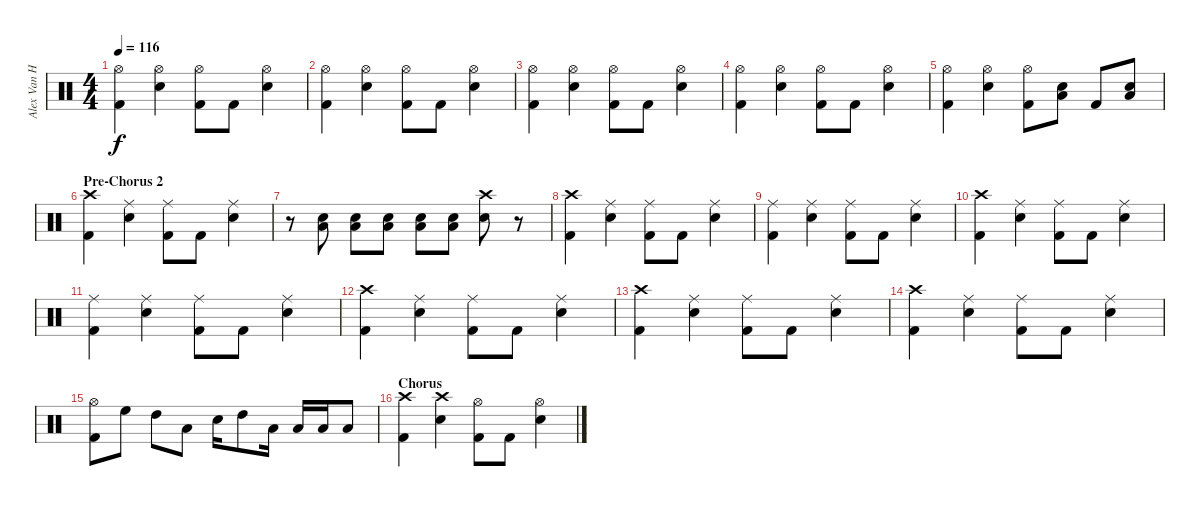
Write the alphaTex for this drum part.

\track ("Alex Van Halen" "Alex Van H") {instrument percussion}
\staff {score}
\articulation defaults
\ts (4 4)
\tempo 116
\clef neutral
\ks c
("Hi-Hat (open)" "Kick (hit) 2").4{dy f} ("Hi-Hat (open)" "Electric Snare (hit)").4 ("Hi-Hat (open)" "Kick (hit) 2").8 "Kick (hit) 2".8 ("Hi-Hat (open)" "Electric Snare (hit)").4 |
("Hi-Hat (open)" "Kick (hit) 2").4 ("Hi-Hat (open)" "Electric Snare (hit)").4 ("Hi-Hat (open)" "Kick (hit) 2").8 "Kick (hit) 2".8 ("Hi-Hat (open)" "Electric Snare (hit)").4 |
("Hi-Hat (open)" "Kick (hit) 2").4 ("Hi-Hat (open)" "Electric Snare (hit)").4 ("Hi-Hat (open)" "Kick (hit) 2").8 "Kick (hit) 2".8 ("Hi-Hat (open)" "Electric Snare (hit)").4 |
("Hi-Hat (open)" "Kick (hit) 2").4 ("Hi-Hat (open)" "Electric Snare (hit)").4 ("Hi-Hat (open)" "Kick (hit) 2").8 "Kick (hit) 2".8 ("Hi-Hat (open)" "Electric Snare (hit)").4 |
("Hi-Hat (open)" "Kick (hit) 2").4 ("Hi-Hat (open)" "Electric Snare (hit)").4 ("Hi-Hat (open)" "Kick (hit) 2").8 ("Electric Snare (hit)" "Low Floor Tom (hit)").8 "Kick (hit) 2".8 ("Electric Snare (hit)" "Low Floor Tom (hit)").8 |
\section ("" "Pre-Chorus 2")
("Crash high (hit)" "Kick (hit) 2").4 ("Ride (middle)" "Electric Snare (hit)").4 ("Ride (middle)" "Kick (hit) 2").8 "Kick (hit) 2".8 ("Ride (middle)" "Electric Snare (hit)").4 |
r.8 ("Electric Snare (hit)" "Low Floor Tom (hit)").8 ("Electric Snare (hit)" "Low Floor Tom (hit)").8 ("Electric Snare (hit)" "Low Floor Tom (hit)").8 ("Electric Snare (hit)" "Low Floor Tom (hit)").8 ("Electric Snare (hit)" "Low Floor Tom (hit)").8 ("Crash high (hit)" "Electric Snare (hit)").8 r.8 |
("Crash high (hit)" "Kick (hit) 2").4 ("Ride (middle)" "Electric Snare (hit)").4 ("Ride (middle)" "Kick (hit) 2").8 "Kick (hit) 2".8 ("Ride (middle)" "Electric Snare (hit)").4 |
("Ride (middle)" "Kick (hit) 2").4 ("Ride (middle)" "Electric Snare (hit)").4 ("Ride (middle)" "Kick (hit) 2").8 "Kick (hit) 2".8 ("Ride (middle)" "Electric Snare (hit)").4 |
("Crash high (hit)" "Kick (hit) 2").4 ("Ride (middle)" "Electric Snare (hit)").4 ("Ride (middle)" "Kick (hit) 2").8 "Kick (hit) 2".8 ("Ride (middle)" "Electric Snare (hit)").4 |
("Ride (middle)" "Kick (hit) 2").4 ("Ride (middle)" "Electric Snare (hit)").4 ("Ride (middle)" "Kick (hit) 2").8 "Kick (hit) 2".8 ("Ride (middle)" "Electric Snare (hit)").4 |
("Crash high (hit)" "Kick (hit) 2").4 ("Ride (middle)" "Electric Snare (hit)").4 ("Ride (middle)" "Kick (hit) 2").8 "Kick (hit) 2".8 ("Ride (middle)" "Electric Snare (hit)").4 |
("Crash high (hit)" "Kick (hit) 2").4 ("Ride (middle)" "Electric Snare (hit)").4 ("Ride (middle)" "Kick (hit) 2").8 "Kick (hit) 2".8 ("Ride (middle)" "Electric Snare (hit)").4 |
("Crash high (hit)" "Kick (hit) 2").4 ("Ride (middle)" "Electric Snare (hit)").4 ("Ride (middle)" "Kick (hit) 2").8 "Kick (hit) 2".8 ("Ride (middle)" "Electric Snare (hit)").4 |
("Hi-Hat (open)" "Kick (hit) 2").8 "High Floor Tom (hit)".8 "High Tom (hit)".8 "Low Tom (hit)".8 "Electric Snare (hit)".16 "High Tom (hit)".8 "Low Tom (hit)".16 "Low Tom (hit)".16 "Low Floor Tom (hit)".16 "Low Floor Tom (hit)".8 |
\section ("" "Chorus")
("Crash high (hit)" "Kick (hit) 2").4 ("Crash high (hit)" "Electric Snare (hit)").4 ("Hi-Hat (open)" "Kick (hit) 2").8 "Kick (hit) 2".8 ("Hi-Hat (open)" "Electric Snare (hit)").4
